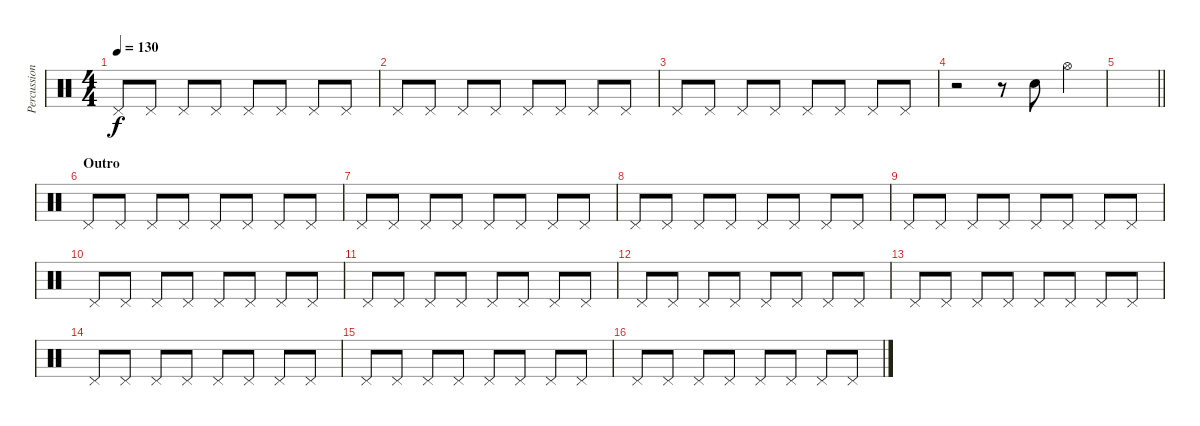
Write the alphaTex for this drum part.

\track ("Percussion" "Percussion") {instrument percussion}
\staff {score}
\articulation defaults
\ts (4 4)
\tempo 130
\clef neutral
\ks c "Pedal Hi-Hat (hit)".8{dy f} "Pedal Hi-Hat (hit)".8 "Pedal Hi-Hat (hit)".8 "Pedal Hi-Hat (hit)".8 "Pedal Hi-Hat (hit)".8 "Pedal Hi-Hat (hit)".8 "Pedal Hi-Hat (hit)".8 "Pedal Hi-Hat (hit)".8
|
"Pedal Hi-Hat (hit)".8 "Pedal Hi-Hat (hit)".8 "Pedal Hi-Hat (hit)".8 "Pedal Hi-Hat (hit)".8 "Pedal Hi-Hat (hit)".8 "Pedal Hi-Hat (hit)".8 "Pedal Hi-Hat (hit)".8 "Pedal Hi-Hat (hit)".8 |
"Pedal Hi-Hat (hit)".8 "Pedal Hi-Hat (hit)".8 "Pedal Hi-Hat (hit)".8 "Pedal Hi-Hat (hit)".8 "Pedal Hi-Hat (hit)".8 "Pedal Hi-Hat (hit)".8 "Pedal Hi-Hat (hit)".8 "Pedal Hi-Hat (hit)".8 |
r.2 r.8 "Electric Snare (hit)".8 "Hi-Hat (open)".4 |
\barLineRight lightlight
|
\section ("" "Outro")
"Pedal Hi-Hat (hit)".8 "Pedal Hi-Hat (hit)".8 "Pedal Hi-Hat (hit)".8 "Pedal Hi-Hat (hit)".8 "Pedal Hi-Hat (hit)".8 "Pedal Hi-Hat (hit)".8 "Pedal Hi-Hat (hit)".8 "Pedal Hi-Hat (hit)".8 |
"Pedal Hi-Hat (hit)".8 "Pedal Hi-Hat (hit)".8 "Pedal Hi-Hat (hit)".8 "Pedal Hi-Hat (hit)".8 "Pedal Hi-Hat (hit)".8 "Pedal Hi-Hat (hit)".8 "Pedal Hi-Hat (hit)".8 "Pedal Hi-Hat (hit)".8 |
"Pedal Hi-Hat (hit)".8 "Pedal Hi-Hat (hit)".8 "Pedal Hi-Hat (hit)".8 "Pedal Hi-Hat (hit)".8 "Pedal Hi-Hat (hit)".8 "Pedal Hi-Hat (hit)".8 "Pedal Hi-Hat (hit)".8 "Pedal Hi-Hat (hit)".8 |
"Pedal Hi-Hat (hit)".8 "Pedal Hi-Hat (hit)".8 "Pedal Hi-Hat (hit)".8 "Pedal Hi-Hat (hit)".8 "Pedal Hi-Hat (hit)".8 "Pedal Hi-Hat (hit)".8 "Pedal Hi-Hat (hit)".8 "Pedal Hi-Hat (hit)".8 |
"Pedal Hi-Hat (hit)".8 "Pedal Hi-Hat (hit)".8 "Pedal Hi-Hat (hit)".8 "Pedal Hi-Hat (hit)".8 "Pedal Hi-Hat (hit)".8 "Pedal Hi-Hat (hit)".8 "Pedal Hi-Hat (hit)".8 "Pedal Hi-Hat (hit)".8 |
"Pedal Hi-Hat (hit)".8 "Pedal Hi-Hat (hit)".8 "Pedal Hi-Hat (hit)".8 "Pedal Hi-Hat (hit)".8 "Pedal Hi-Hat (hit)".8 "Pedal Hi-Hat (hit)".8 "Pedal Hi-Hat (hit)".8 "Pedal Hi-Hat (hit)".8 |
"Pedal Hi-Hat (hit)".8 "Pedal Hi-Hat (hit)".8 "Pedal Hi-Hat (hit)".8 "Pedal Hi-Hat (hit)".8 "Pedal Hi-Hat (hit)".8 "Pedal Hi-Hat (hit)".8 "Pedal Hi-Hat (hit)".8 "Pedal Hi-Hat (hit)".8 |
"Pedal Hi-Hat (hit)".8 "Pedal Hi-Hat (hit)".8 "Pedal Hi-Hat (hit)".8 "Pedal Hi-Hat (hit)".8 "Pedal Hi-Hat (hit)".8 "Pedal Hi-Hat (hit)".8 "Pedal Hi-Hat (hit)".8 "Pedal Hi-Hat (hit)".8 |
"Pedal Hi-Hat (hit)".8 "Pedal Hi-Hat (hit)".8 "Pedal Hi-Hat (hit)".8 "Pedal Hi-Hat (hit)".8 "Pedal Hi-Hat (hit)".8 "Pedal Hi-Hat (hit)".8 "Pedal Hi-Hat (hit)".8 "Pedal Hi-Hat (hit)".8 |
"Pedal Hi-Hat (hit)".8 "Pedal Hi-Hat (hit)".8 "Pedal Hi-Hat (hit)".8 "Pedal Hi-Hat (hit)".8 "Pedal Hi-Hat (hit)".8 "Pedal Hi-Hat (hit)".8 "Pedal Hi-Hat (hit)".8 "Pedal Hi-Hat (hit)".8 |
"Pedal Hi-Hat (hit)".8 "Pedal Hi-Hat (hit)".8 "Pedal Hi-Hat (hit)".8 "Pedal Hi-Hat (hit)".8 "Pedal Hi-Hat (hit)".8 "Pedal Hi-Hat (hit)".8 "Pedal Hi-Hat (hit)".8 "Pedal Hi-Hat (hit)".8
